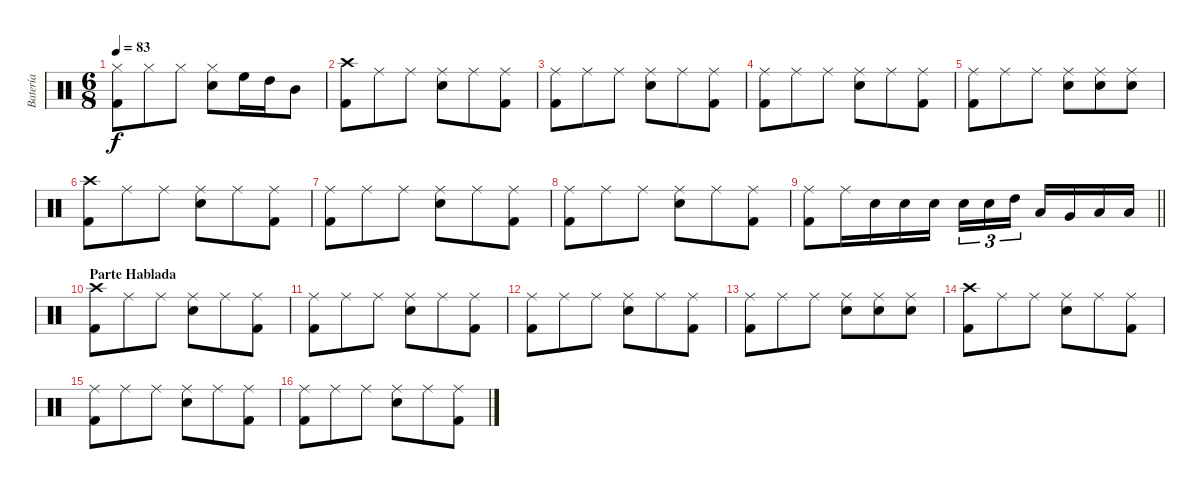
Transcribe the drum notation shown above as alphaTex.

\track ("Batería" "Batería") {instrument percussion}
\staff {score}
\articulation defaults
\ts (6 8)
\tempo 83
\clef neutral
\ks c
("Hi-Hat (closed)" "Kick (hit) 2").8{dy f} "Hi-Hat (closed)".8 "Hi-Hat (closed)".8 ("Hi-Hat (closed)" "Electric Snare (hit)").8 "High Floor Tom (hit)".16 "High Tom (hit)".16 "Mid Tom (hit)".8 |
("Crash high (hit)" "Kick (hit) 2").8 "Ride (middle)".8 "Ride (middle)".8 ("Ride (middle)" "Electric Snare (hit)").8 "Ride (middle)".8 ("Ride (middle)" "Kick (hit) 2").8 |
("Ride (middle)" "Kick (hit) 2").8 "Ride (middle)".8 "Ride (middle)".8 ("Ride (middle)" "Electric Snare (hit)").8 "Ride (middle)".8 ("Ride (middle)" "Kick (hit) 2").8 |
("Ride (middle)" "Kick (hit) 2").8 "Ride (middle)".8 "Ride (middle)".8 ("Ride (middle)" "Electric Snare (hit)").8 "Ride (middle)".8 ("Ride (middle)" "Kick (hit) 2").8 |
("Ride (middle)" "Kick (hit) 2").8 "Ride (middle)".8 "Ride (middle)".8 ("Ride (middle)" "Electric Snare (hit)").8 ("Ride (middle)" "Electric Snare (hit)").8 ("Ride (middle)" "Electric Snare (hit)").8 |
("Crash high (hit)" "Kick (hit) 2").8 "Ride (middle)".8 "Ride (middle)".8 ("Ride (middle)" "Electric Snare (hit)").8 "Ride (middle)".8 ("Ride (middle)" "Kick (hit) 2").8 |
("Ride (middle)" "Kick (hit) 2").8 "Ride (middle)".8 "Ride (middle)".8 ("Ride (middle)" "Electric Snare (hit)").8 "Ride (middle)".8 ("Ride (middle)" "Kick (hit) 2").8 |
("Ride (middle)" "Kick (hit) 2").8 "Ride (middle)".8 "Ride (middle)".8 ("Ride (middle)" "Electric Snare (hit)").8 "Ride (middle)".8 ("Ride (middle)" "Kick (hit) 2").8 |
\barLineRight lightlight
("Ride (middle)" "Kick (hit) 2").8 "Ride (middle)".16 "Electric Snare (hit)".16 "Electric Snare (hit)".16 "Electric Snare (hit)".16 "Electric Snare (hit)".16{tu (3 2)} "Electric Snare (hit)".16{tu (3 2)} "High Tom (hit)".16{tu (3 2) beam splitsecondary} "Low Tom (hit)".16 "Very Low Tom (hit)".16 "Low Floor Tom (hit)".16 "Low Floor Tom (hit)".16 |
\section ("" "Parte Hablada")
("Crash high (hit)" "Kick (hit) 2").8 "Ride (middle)".8 "Ride (middle)".8 ("Ride (middle)" "Electric Snare (hit)").8 "Ride (middle)".8 ("Ride (middle)" "Kick (hit) 2").8 |
("Ride (middle)" "Kick (hit) 2").8 "Ride (middle)".8 "Ride (middle)".8 ("Ride (middle)" "Electric Snare (hit)").8 "Ride (middle)".8 ("Ride (middle)" "Kick (hit) 2").8 |
("Ride (middle)" "Kick (hit) 2").8 "Ride (middle)".8 "Ride (middle)".8 ("Ride (middle)" "Electric Snare (hit)").8 "Ride (middle)".8 ("Ride (middle)" "Kick (hit) 2").8 |
("Ride (middle)" "Kick (hit) 2").8 "Ride (middle)".8 "Ride (middle)".8 ("Ride (middle)" "Electric Snare (hit)").8 ("Ride (middle)" "Electric Snare (hit)").8 ("Ride (middle)" "Electric Snare (hit)").8 |
("Crash high (hit)" "Kick (hit) 2").8 "Ride (middle)".8 "Ride (middle)".8 ("Ride (middle)" "Electric Snare (hit)").8 "Ride (middle)".8 ("Ride (middle)" "Kick (hit) 2").8 |
("Ride (middle)" "Kick (hit) 2").8 "Ride (middle)".8 "Ride (middle)".8 ("Ride (middle)" "Electric Snare (hit)").8 "Ride (middle)".8 ("Ride (middle)" "Kick (hit) 2").8 |
("Ride (middle)" "Kick (hit) 2").8 "Ride (middle)".8 "Ride (middle)".8 ("Ride (middle)" "Electric Snare (hit)").8 "Ride (middle)".8 ("Ride (middle)" "Kick (hit) 2").8
